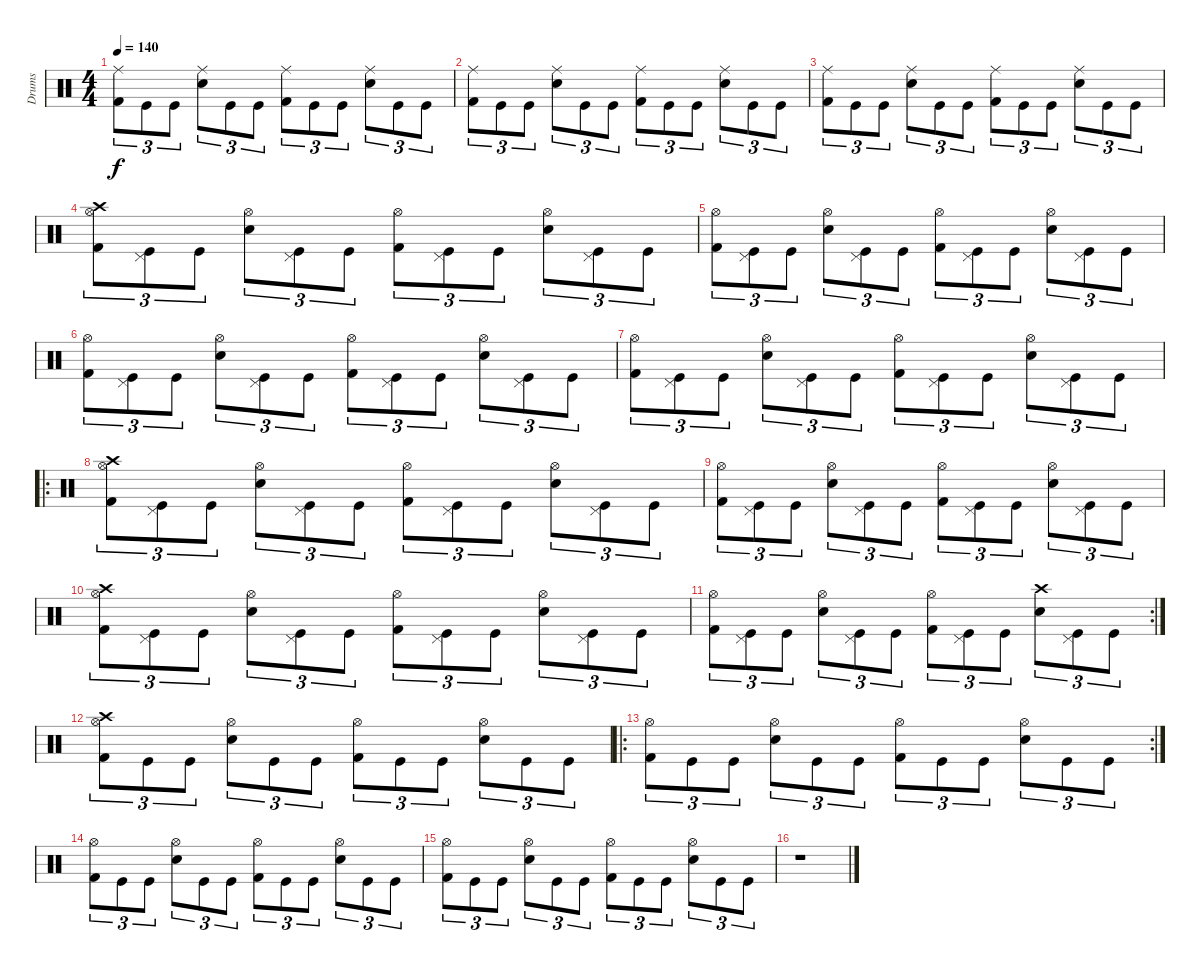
\track ("Drums" "Drums") {instrument percussion}
\staff {score}
\articulation defaults
\ts (4 4)
\tempo 140
\clef neutral
\ks c
("Ride (middle)" "Kick (hit) 2").8{tu (3 2) dy f} "Kick (hit)".8{tu (3 2)} "Kick (hit)".8{tu (3 2)} ("Ride (middle)" "Snare (hit) 2").8{tu (3 2)} "Kick (hit)".8{tu (3 2)} "Kick (hit)".8{tu (3 2)} ("Ride (middle)" "Kick (hit) 2").8{tu (3 2)} "Kick (hit)".8{tu (3 2)} "Kick (hit)".8{tu (3 2)} ("Ride (middle)" "Snare (hit) 2").8{tu (3 2)} "Kick (hit)".8{tu (3 2)} "Kick (hit)".8{tu (3 2)} |
("Ride (middle)" "Kick (hit) 2").8{tu (3 2)} "Kick (hit)".8{tu (3 2)} "Kick (hit)".8{tu (3 2)} ("Ride (middle)" "Snare (hit) 2").8{tu (3 2)} "Kick (hit)".8{tu (3 2)} "Kick (hit)".8{tu (3 2)} ("Ride (middle)" "Kick (hit) 2").8{tu (3 2)} "Kick (hit)".8{tu (3 2)} "Kick (hit)".8{tu (3 2)} ("Ride (middle)" "Snare (hit) 2").8{tu (3 2)} "Kick (hit)".8{tu (3 2)} "Kick (hit)".8{tu (3 2)} |
("Ride (middle)" "Kick (hit) 2").8{tu (3 2)} "Kick (hit)".8{tu (3 2)} "Kick (hit)".8{tu (3 2)} ("Ride (middle)" "Snare (hit) 2").8{tu (3 2)} "Kick (hit)".8{tu (3 2)} "Kick (hit)".8{tu (3 2)} ("Ride (middle)" "Kick (hit) 2").8{tu (3 2)} "Kick (hit)".8{tu (3 2)} "Kick (hit)".8{tu (3 2)} ("Ride (middle)" "Snare (hit) 2").8{tu (3 2)} "Kick (hit)".8{tu (3 2)} "Kick (hit)".8{tu (3 2)} |
("Hi-Hat (open)" "Kick (hit) 2" "Crash high (hit)").8{tu (3 2)} ("Pedal Hi-Hat (hit)" "Kick (hit)").8{tu (3 2)} "Kick (hit)".8{tu (3 2)} ("Hi-Hat (open)" "Snare (hit) 2").8{tu (3 2)} ("Pedal Hi-Hat (hit)" "Kick (hit)").8{tu (3 2)} "Kick (hit)".8{tu (3 2)} ("Hi-Hat (open)" "Kick (hit) 2").8{tu (3 2)} ("Pedal Hi-Hat (hit)" "Kick (hit)").8{tu (3 2)} "Kick (hit)".8{tu (3 2)} ("Hi-Hat (open)" "Snare (hit) 2").8{tu (3 2)} ("Pedal Hi-Hat (hit)" "Kick (hit)").8{tu (3 2)} "Kick (hit)".8{tu (3 2)} |
("Hi-Hat (open)" "Kick (hit) 2").8{tu (3 2)} ("Pedal Hi-Hat (hit)" "Kick (hit)").8{tu (3 2)} "Kick (hit)".8{tu (3 2)} ("Hi-Hat (open)" "Snare (hit) 2").8{tu (3 2)} ("Pedal Hi-Hat (hit)" "Kick (hit)").8{tu (3 2)} "Kick (hit)".8{tu (3 2)} ("Hi-Hat (open)" "Kick (hit) 2").8{tu (3 2)} ("Pedal Hi-Hat (hit)" "Kick (hit)").8{tu (3 2)} "Kick (hit)".8{tu (3 2)} ("Hi-Hat (open)" "Snare (hit) 2").8{tu (3 2)} ("Pedal Hi-Hat (hit)" "Kick (hit)").8{tu (3 2)} "Kick (hit)".8{tu (3 2)} |
("Hi-Hat (open)" "Kick (hit) 2").8{tu (3 2)} ("Pedal Hi-Hat (hit)" "Kick (hit)").8{tu (3 2)} "Kick (hit)".8{tu (3 2)} ("Hi-Hat (open)" "Snare (hit) 2").8{tu (3 2)} ("Pedal Hi-Hat (hit)" "Kick (hit)").8{tu (3 2)} "Kick (hit)".8{tu (3 2)} ("Hi-Hat (open)" "Kick (hit) 2").8{tu (3 2)} ("Pedal Hi-Hat (hit)" "Kick (hit)").8{tu (3 2)} "Kick (hit)".8{tu (3 2)} ("Hi-Hat (open)" "Snare (hit) 2").8{tu (3 2)} ("Pedal Hi-Hat (hit)" "Kick (hit)").8{tu (3 2)} "Kick (hit)".8{tu (3 2)} |
("Hi-Hat (open)" "Kick (hit) 2").8{tu (3 2)} ("Pedal Hi-Hat (hit)" "Kick (hit)").8{tu (3 2)} "Kick (hit)".8{tu (3 2)} ("Hi-Hat (open)" "Snare (hit) 2").8{tu (3 2)} ("Pedal Hi-Hat (hit)" "Kick (hit)").8{tu (3 2)} "Kick (hit)".8{tu (3 2)} ("Hi-Hat (open)" "Kick (hit) 2").8{tu (3 2)} ("Pedal Hi-Hat (hit)" "Kick (hit)").8{tu (3 2)} "Kick (hit)".8{tu (3 2)} ("Hi-Hat (open)" "Snare (hit) 2").8{tu (3 2)} ("Pedal Hi-Hat (hit)" "Kick (hit)").8{tu (3 2)} "Kick (hit)".8{tu (3 2)} |
\ro
("Hi-Hat (open)" "Kick (hit) 2" "Crash high (hit)").8{tu (3 2)} ("Pedal Hi-Hat (hit)" "Kick (hit)").8{tu (3 2)} "Kick (hit)".8{tu (3 2)} ("Hi-Hat (open)" "Snare (hit) 2").8{tu (3 2)} ("Pedal Hi-Hat (hit)" "Kick (hit)").8{tu (3 2)} "Kick (hit)".8{tu (3 2)} ("Hi-Hat (open)" "Kick (hit) 2").8{tu (3 2)} ("Pedal Hi-Hat (hit)" "Kick (hit)").8{tu (3 2)} "Kick (hit)".8{tu (3 2)} ("Hi-Hat (open)" "Snare (hit) 2").8{tu (3 2)} ("Pedal Hi-Hat (hit)" "Kick (hit)").8{tu (3 2)} "Kick (hit)".8{tu (3 2)} |
("Hi-Hat (open)" "Kick (hit) 2").8{tu (3 2)} ("Pedal Hi-Hat (hit)" "Kick (hit)").8{tu (3 2)} "Kick (hit)".8{tu (3 2)} ("Hi-Hat (open)" "Snare (hit) 2").8{tu (3 2)} ("Pedal Hi-Hat (hit)" "Kick (hit)").8{tu (3 2)} "Kick (hit)".8{tu (3 2)} ("Hi-Hat (open)" "Kick (hit) 2").8{tu (3 2)} ("Pedal Hi-Hat (hit)" "Kick (hit)").8{tu (3 2)} "Kick (hit)".8{tu (3 2)} ("Hi-Hat (open)" "Snare (hit) 2").8{tu (3 2)} ("Pedal Hi-Hat (hit)" "Kick (hit)").8{tu (3 2)} "Kick (hit)".8{tu (3 2)} |
("Hi-Hat (open)" "Crash high (hit)" "Kick (hit) 2").8{tu (3 2)} ("Pedal Hi-Hat (hit)" "Kick (hit)").8{tu (3 2)} "Kick (hit)".8{tu (3 2)} ("Hi-Hat (open)" "Snare (hit) 2").8{tu (3 2)} ("Pedal Hi-Hat (hit)" "Kick (hit)").8{tu (3 2)} "Kick (hit)".8{tu (3 2)} ("Hi-Hat (open)" "Kick (hit) 2").8{tu (3 2)} ("Pedal Hi-Hat (hit)" "Kick (hit)").8{tu (3 2)} "Kick (hit)".8{tu (3 2)} ("Hi-Hat (open)" "Snare (hit) 2").8{tu (3 2)} ("Pedal Hi-Hat (hit)" "Kick (hit)").8{tu (3 2)} "Kick (hit)".8{tu (3 2)} |
\rc 2
("Hi-Hat (open)" "Kick (hit) 2").8{tu (3 2)} ("Pedal Hi-Hat (hit)" "Kick (hit)").8{tu (3 2)} "Kick (hit)".8{tu (3 2)} ("Hi-Hat (open)" "Snare (hit) 2").8{tu (3 2)} ("Pedal Hi-Hat (hit)" "Kick (hit)").8{tu (3 2)} "Kick (hit)".8{tu (3 2)} ("Hi-Hat (open)" "Kick (hit) 2").8{tu (3 2)} ("Pedal Hi-Hat (hit)" "Kick (hit)").8{tu (3 2)} "Kick (hit)".8{tu (3 2)} ("Crash high (hit)" "Snare (hit) 2").8{tu (3 2)} ("Pedal Hi-Hat (hit)" "Kick (hit)").8{tu (3 2)} "Kick (hit)".8{tu (3 2)} |
("Hi-Hat (open)" "Kick (hit) 2" "Crash high (hit)").8{tu (3 2) volume 0} "Kick (hit)".8{tu (3 2)} "Kick (hit)".8{tu (3 2)} ("Hi-Hat (open)" "Snare (hit) 2").8{tu (3 2)} "Kick (hit)".8{tu (3 2)} "Kick (hit)".8{tu (3 2)} ("Hi-Hat (open)" "Kick (hit) 2").8{tu (3 2)} "Kick (hit)".8{tu (3 2)} "Kick (hit)".8{tu (3 2)} ("Hi-Hat (open)" "Snare (hit) 2").8{tu (3 2)} "Kick (hit)".8{tu (3 2)} "Kick (hit)".8{tu (3 2)} |
\ro
\rc 2
("Hi-Hat (open)" "Kick (hit) 2").8{tu (3 2)} "Kick (hit)".8{tu (3 2)} "Kick (hit)".8{tu (3 2)} ("Hi-Hat (open)" "Snare (hit) 2").8{tu (3 2)} "Kick (hit)".8{tu (3 2)} "Kick (hit)".8{tu (3 2)} ("Hi-Hat (open)" "Kick (hit) 2").8{tu (3 2)} "Kick (hit)".8{tu (3 2)} "Kick (hit)".8{tu (3 2)} ("Hi-Hat (open)" "Snare (hit) 2").8{tu (3 2)} "Kick (hit)".8{tu (3 2)} "Kick (hit)".8{tu (3 2)} |
("Hi-Hat (open)" "Kick (hit) 2").8{tu (3 2)} "Kick (hit)".8{tu (3 2)} "Kick (hit)".8{tu (3 2)} ("Hi-Hat (open)" "Snare (hit) 2").8{tu (3 2)} "Kick (hit)".8{tu (3 2)} "Kick (hit)".8{tu (3 2)} ("Hi-Hat (open)" "Kick (hit) 2").8{tu (3 2)} "Kick (hit)".8{tu (3 2)} "Kick (hit)".8{tu (3 2)} ("Hi-Hat (open)" "Snare (hit) 2").8{tu (3 2)} "Kick (hit)".8{tu (3 2)} "Kick (hit)".8{tu (3 2)} |
("Hi-Hat (open)" "Kick (hit) 2").8{tu (3 2)} "Kick (hit)".8{tu (3 2)} "Kick (hit)".8{tu (3 2)} ("Hi-Hat (open)" "Snare (hit) 2").8{tu (3 2)} "Kick (hit)".8{tu (3 2)} "Kick (hit)".8{tu (3 2)} ("Hi-Hat (open)" "Kick (hit) 2").8{tu (3 2)} "Kick (hit)".8{tu (3 2)} "Kick (hit)".8{tu (3 2)} ("Hi-Hat (open)" "Snare (hit) 2").8{tu (3 2)} "Kick (hit)".8{tu (3 2)} "Kick (hit)".8{tu (3 2)} |
r.1
